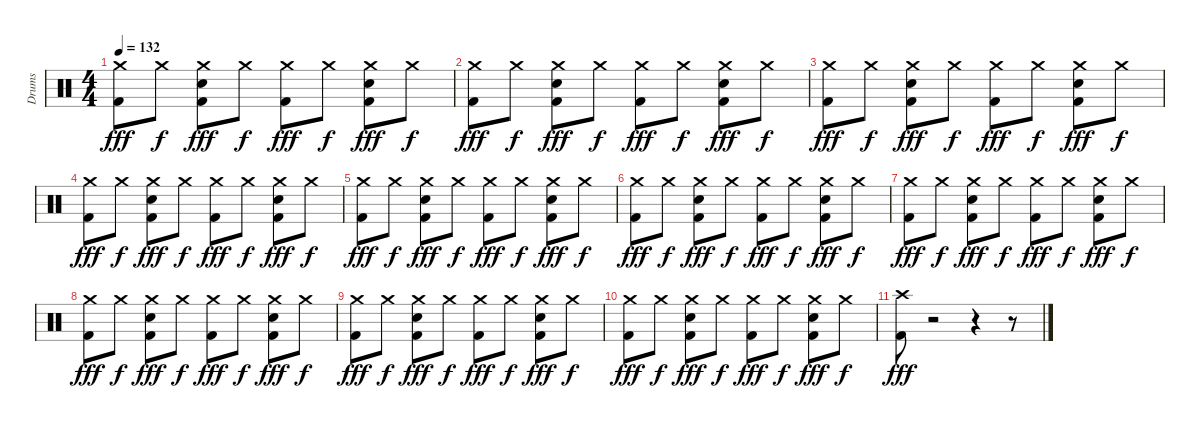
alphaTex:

\track ("Drums" "Drums") {instrument percussion}
\staff {score}
\articulation defaults
\ts (4 4)
\tempo 132
\clef neutral
\ks c
("Crash medium (hit)" "Kick (hit) 2").8{dy fff} "Crash medium (hit)".8{dy f} ("Crash medium (hit)" "Snare (hit) 2" "Kick (hit) 2").8{dy fff} "Crash medium (hit)".8{dy f} ("Crash medium (hit)" "Kick (hit) 2").8{dy fff} "Crash medium (hit)".8{dy f} ("Crash medium (hit)" "Snare (hit) 2" "Kick (hit) 2").8{dy fff} "Crash medium (hit)".8{dy f} |
("Crash medium (hit)" "Kick (hit) 2").8{dy fff} "Crash medium (hit)".8{dy f} ("Crash medium (hit)" "Snare (hit) 2" "Kick (hit) 2").8{dy fff} "Crash medium (hit)".8{dy f} ("Crash medium (hit)" "Kick (hit) 2").8{dy fff} "Crash medium (hit)".8{dy f} ("Crash medium (hit)" "Snare (hit) 2" "Kick (hit) 2").8{dy fff} "Crash medium (hit)".8{dy f} |
("Crash medium (hit)" "Kick (hit) 2").8{dy fff} "Crash medium (hit)".8{dy f} ("Crash medium (hit)" "Snare (hit) 2" "Kick (hit) 2").8{dy fff} "Crash medium (hit)".8{dy f} ("Crash medium (hit)" "Kick (hit) 2").8{dy fff} "Crash medium (hit)".8{dy f} ("Crash medium (hit)" "Snare (hit) 2" "Kick (hit) 2").8{dy fff} "Crash medium (hit)".8{dy f} |
("Crash medium (hit)" "Kick (hit) 2").8{dy fff} "Crash medium (hit)".8{dy f} ("Crash medium (hit)" "Snare (hit) 2" "Kick (hit) 2").8{dy fff} "Crash medium (hit)".8{dy f} ("Crash medium (hit)" "Kick (hit) 2").8{dy fff} "Crash medium (hit)".8{dy f} ("Crash medium (hit)" "Snare (hit) 2" "Kick (hit) 2").8{dy fff} "Crash medium (hit)".8{dy f} |
("Crash medium (hit)" "Kick (hit) 2").8{dy fff} "Crash medium (hit)".8{dy f} ("Crash medium (hit)" "Snare (hit) 2" "Kick (hit) 2").8{dy fff} "Crash medium (hit)".8{dy f} ("Crash medium (hit)" "Kick (hit) 2").8{dy fff} "Crash medium (hit)".8{dy f} ("Crash medium (hit)" "Snare (hit) 2" "Kick (hit) 2").8{dy fff} "Crash medium (hit)".8{dy f} |
("Crash medium (hit)" "Kick (hit) 2").8{dy fff} "Crash medium (hit)".8{dy f} ("Crash medium (hit)" "Snare (hit) 2" "Kick (hit) 2").8{dy fff} "Crash medium (hit)".8{dy f} ("Crash medium (hit)" "Kick (hit) 2").8{dy fff} "Crash medium (hit)".8{dy f} ("Crash medium (hit)" "Snare (hit) 2" "Kick (hit) 2").8{dy fff} "Crash medium (hit)".8{dy f} |
("Crash medium (hit)" "Kick (hit) 2").8{dy fff} "Crash medium (hit)".8{dy f} ("Crash medium (hit)" "Snare (hit) 2" "Kick (hit) 2").8{dy fff} "Crash medium (hit)".8{dy f} ("Crash medium (hit)" "Kick (hit) 2").8{dy fff} "Crash medium (hit)".8{dy f} ("Crash medium (hit)" "Snare (hit) 2" "Kick (hit) 2").8{dy fff} "Crash medium (hit)".8{dy f} |
("Crash medium (hit)" "Kick (hit) 2").8{dy fff} "Crash medium (hit)".8{dy f} ("Crash medium (hit)" "Snare (hit) 2" "Kick (hit) 2").8{dy fff} "Crash medium (hit)".8{dy f} ("Crash medium (hit)" "Kick (hit) 2").8{dy fff} "Crash medium (hit)".8{dy f} ("Crash medium (hit)" "Snare (hit) 2" "Kick (hit) 2").8{dy fff} "Crash medium (hit)".8{dy f} |
("Crash medium (hit)" "Kick (hit) 2").8{dy fff} "Crash medium (hit)".8{dy f} ("Crash medium (hit)" "Snare (hit) 2" "Kick (hit) 2").8{dy fff} "Crash medium (hit)".8{dy f} ("Crash medium (hit)" "Kick (hit) 2").8{dy fff} "Crash medium (hit)".8{dy f} ("Crash medium (hit)" "Snare (hit) 2" "Kick (hit) 2").8{dy fff} "Crash medium (hit)".8{dy f} |
("Crash medium (hit)" "Kick (hit) 2").8{dy fff} "Crash medium (hit)".8{dy f} ("Crash medium (hit)" "Snare (hit) 2" "Kick (hit) 2").8{dy fff} "Crash medium (hit)".8{dy f} ("Crash medium (hit)" "Kick (hit) 2").8{dy fff} "Crash medium (hit)".8{dy f} ("Crash medium (hit)" "Snare (hit) 2" "Kick (hit) 2").8{dy fff} "Crash medium (hit)".8{dy f} |
("Crash high (hit)" "Kick (hit) 2").8{dy fff} r.2 r.4 r.8
